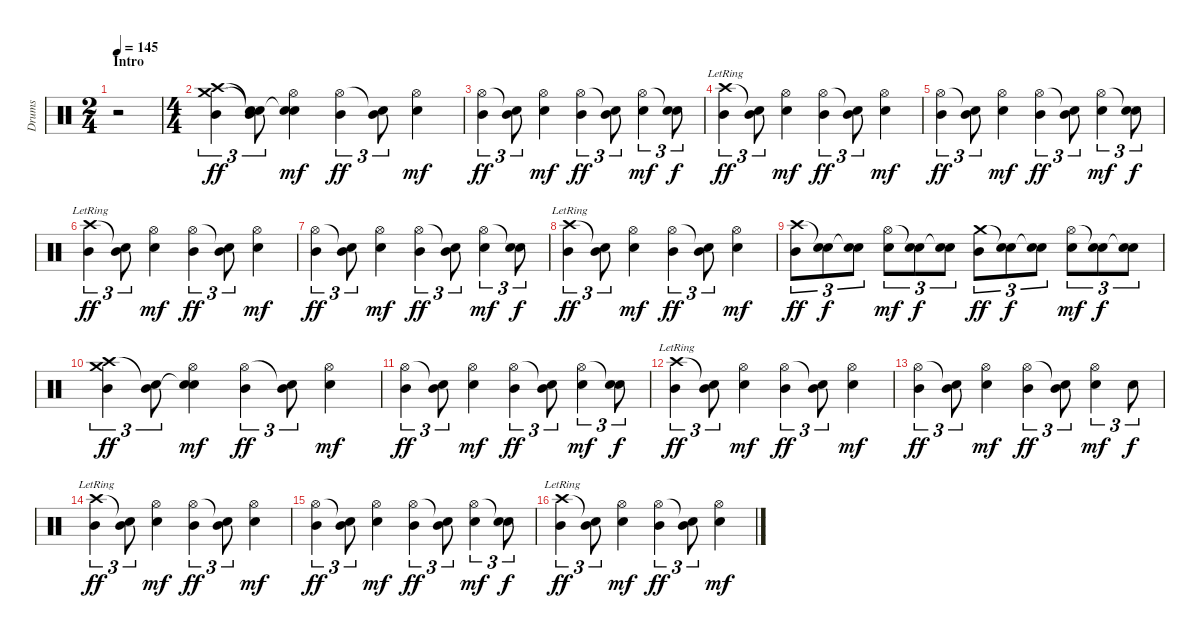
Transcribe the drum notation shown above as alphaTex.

\track ("Drums" "Drums") {instrument percussion}
\staff {score}
\articulation defaults
\ts (2 4)
\section ("" "Intro")
\tempo 145
\clef neutral
\ks c
r.2{dy ff} |
\ts (4 4)
("Crash high (hit)" "Crash medium (hit)" "Mid Tom (hit)").4{tu (3 2) volume 14} ("Snare (hit)"{t} "Snare (hit)"{t} "Mid Tom (hit)").8{tu (3 2)} ("Hi-Hat (open)" "Snare (hit)"{t} "Electric Snare (hit)").4{dy mf} ("Hi-Hat (open)" "Mid Tom (hit)").4{tu (3 2) dy ff} ("Snare (hit)"{t} "Mid Tom (hit)").8{tu (3 2)} ("Hi-Hat (open)" "Electric Snare (hit)").4{dy mf} |
("Hi-Hat (open)" "Mid Tom (hit)").4{tu (3 2) dy ff} ("Snare (hit)"{t} "Mid Tom (hit)").8{tu (3 2)} ("Hi-Hat (open)" "Electric Snare (hit)").4{dy mf} ("Hi-Hat (open)" "Mid Tom (hit)").4{tu (3 2) dy ff} ("Snare (hit)"{t} "Mid Tom (hit)").8{tu (3 2)} ("Hi-Hat (open)" "Electric Snare (hit)").4{tu (3 2) dy mf} ("Snare (hit)"{t} "Electric Snare (hit)").8{tu (3 2) dy f} |
("Crash high (hit)"{lr} "Mid Tom (hit)").4{tu (3 2) dy ff} ("Snare (hit)"{t} "Mid Tom (hit)").8{tu (3 2)} ("Hi-Hat (open)" "Electric Snare (hit)").4{dy mf} ("Hi-Hat (open)" "Mid Tom (hit)").4{tu (3 2) dy ff} ("Snare (hit)"{t} "Mid Tom (hit)").8{tu (3 2)} ("Hi-Hat (open)" "Electric Snare (hit)").4{dy mf} |
("Hi-Hat (open)" "Mid Tom (hit)").4{tu (3 2) dy ff} ("Snare (hit)"{t} "Mid Tom (hit)").8{tu (3 2)} ("Hi-Hat (open)" "Electric Snare (hit)").4{dy mf} ("Hi-Hat (open)" "Mid Tom (hit)").4{tu (3 2) dy ff} ("Snare (hit)"{t} "Mid Tom (hit)").8{tu (3 2)} ("Hi-Hat (open)" "Electric Snare (hit)").4{tu (3 2) dy mf} ("Snare (hit)"{t} "Electric Snare (hit)").8{tu (3 2) dy f} |
("Crash high (hit)"{lr} "Mid Tom (hit)").4{tu (3 2) dy ff} ("Snare (hit)"{t} "Mid Tom (hit)").8{tu (3 2)} ("Hi-Hat (open)" "Electric Snare (hit)").4{dy mf} ("Hi-Hat (open)" "Mid Tom (hit)").4{tu (3 2) dy ff} ("Snare (hit)"{t} "Mid Tom (hit)").8{tu (3 2)} ("Hi-Hat (open)" "Electric Snare (hit)").4{dy mf} |
("Hi-Hat (open)" "Mid Tom (hit)").4{tu (3 2) dy ff} ("Snare (hit)"{t} "Mid Tom (hit)").8{tu (3 2)} ("Hi-Hat (open)" "Electric Snare (hit)").4{dy mf} ("Hi-Hat (open)" "Mid Tom (hit)").4{tu (3 2) dy ff} ("Snare (hit)"{t} "Mid Tom (hit)").8{tu (3 2)} ("Hi-Hat (open)" "Electric Snare (hit)").4{tu (3 2) dy mf} ("Snare (hit)"{t} "Electric Snare (hit)").8{tu (3 2) dy f} |
("Crash high (hit)"{lr} "Mid Tom (hit)").4{tu (3 2) dy ff} ("Snare (hit)"{t} "Mid Tom (hit)").8{tu (3 2)} ("Hi-Hat (open)" "Electric Snare (hit)").4{dy mf} ("Hi-Hat (open)" "Mid Tom (hit)").4{tu (3 2) dy ff} ("Snare (hit)"{t} "Mid Tom (hit)").8{tu (3 2)} ("Hi-Hat (open)" "Electric Snare (hit)").4{dy mf} |
("Crash high (hit)" "Mid Tom (hit)").8{tu (3 2) dy ff} ("Snare (hit)"{t} "Electric Snare (hit)").8{tu (3 2) dy f} ("Snare (hit)"{t} "Electric Snare (hit)").8{tu (3 2)} ("Hi-Hat (open)" "Electric Snare (hit)").8{tu (3 2) dy mf} ("Snare (hit)"{t} "Electric Snare (hit)").8{tu (3 2) dy f} ("Snare (hit)"{t} "Electric Snare (hit)").8{tu (3 2)} ("Crash medium (hit)" "Mid Tom (hit)").8{tu (3 2) dy ff} ("Snare (hit)"{t} "Electric Snare (hit)").8{tu (3 2) dy f} ("Snare (hit)"{t} "Electric Snare (hit)").8{tu (3 2)} ("Hi-Hat (open)" "Electric Snare (hit)").8{tu (3 2) dy mf} ("Snare (hit)"{t} "Electric Snare (hit)").8{tu (3 2) dy f} ("Snare (hit)"{t} "Electric Snare (hit)").8{tu (3 2)} |
("Crash high (hit)" "Crash medium (hit)" "Mid Tom (hit)").4{tu (3 2) dy ff} ("Snare (hit)"{t} "Mid Tom (hit)").8{tu (3 2)} ("Hi-Hat (open)" "Snare (hit)"{t} "Electric Snare (hit)").4{dy mf} ("Hi-Hat (open)" "Mid Tom (hit)").4{tu (3 2) dy ff} ("Snare (hit)"{t} "Mid Tom (hit)").8{tu (3 2)} ("Hi-Hat (open)" "Electric Snare (hit)").4{dy mf} |
("Hi-Hat (open)" "Mid Tom (hit)").4{tu (3 2) dy ff} ("Snare (hit)"{t} "Mid Tom (hit)").8{tu (3 2)} ("Hi-Hat (open)" "Electric Snare (hit)").4{dy mf} ("Hi-Hat (open)" "Mid Tom (hit)").4{tu (3 2) dy ff} ("Snare (hit)"{t} "Mid Tom (hit)").8{tu (3 2)} ("Hi-Hat (open)" "Electric Snare (hit)").4{tu (3 2) dy mf} ("Snare (hit)"{t} "Electric Snare (hit)").8{tu (3 2) dy f} |
("Crash high (hit)"{lr} "Mid Tom (hit)").4{tu (3 2) dy ff} ("Snare (hit)"{t} "Mid Tom (hit)").8{tu (3 2)} ("Hi-Hat (open)" "Electric Snare (hit)").4{dy mf} ("Hi-Hat (open)" "Mid Tom (hit)").4{tu (3 2) dy ff} ("Snare (hit)"{t} "Mid Tom (hit)").8{tu (3 2)} ("Hi-Hat (open)" "Electric Snare (hit)").4{dy mf} |
("Hi-Hat (open)" "Mid Tom (hit)").4{tu (3 2) dy ff} ("Snare (hit)"{t} "Mid Tom (hit)").8{tu (3 2)} ("Hi-Hat (open)" "Electric Snare (hit)").4{dy mf} ("Hi-Hat (open)" "Mid Tom (hit)").4{tu (3 2) dy ff} ("Snare (hit)"{t} "Mid Tom (hit)").8{tu (3 2)} ("Hi-Hat (open)" "Electric Snare (hit)").4{tu (3 2) dy mf} "Electric Snare (hit)".8{tu (3 2) dy f} |
("Crash high (hit)"{lr} "Mid Tom (hit)").4{tu (3 2) dy ff} ("Snare (hit)"{t} "Mid Tom (hit)").8{tu (3 2)} ("Hi-Hat (open)" "Electric Snare (hit)").4{dy mf} ("Hi-Hat (open)" "Mid Tom (hit)").4{tu (3 2) dy ff} ("Snare (hit)"{t} "Mid Tom (hit)").8{tu (3 2)} ("Hi-Hat (open)" "Electric Snare (hit)").4{dy mf} |
("Hi-Hat (open)" "Mid Tom (hit)").4{tu (3 2) dy ff} ("Snare (hit)"{t} "Mid Tom (hit)").8{tu (3 2)} ("Hi-Hat (open)" "Electric Snare (hit)").4{dy mf} ("Hi-Hat (open)" "Mid Tom (hit)").4{tu (3 2) dy ff} ("Snare (hit)"{t} "Mid Tom (hit)").8{tu (3 2)} ("Hi-Hat (open)" "Electric Snare (hit)").4{tu (3 2) dy mf} ("Snare (hit)"{t} "Electric Snare (hit)").8{tu (3 2) dy f} |
("Crash high (hit)"{lr} "Mid Tom (hit)").4{tu (3 2) dy ff} ("Snare (hit)"{t} "Mid Tom (hit)").8{tu (3 2)} ("Hi-Hat (open)" "Electric Snare (hit)").4{dy mf} ("Hi-Hat (open)" "Mid Tom (hit)").4{tu (3 2) dy ff} ("Snare (hit)"{t} "Mid Tom (hit)").8{tu (3 2)} ("Hi-Hat (open)" "Electric Snare (hit)").4{dy mf}
